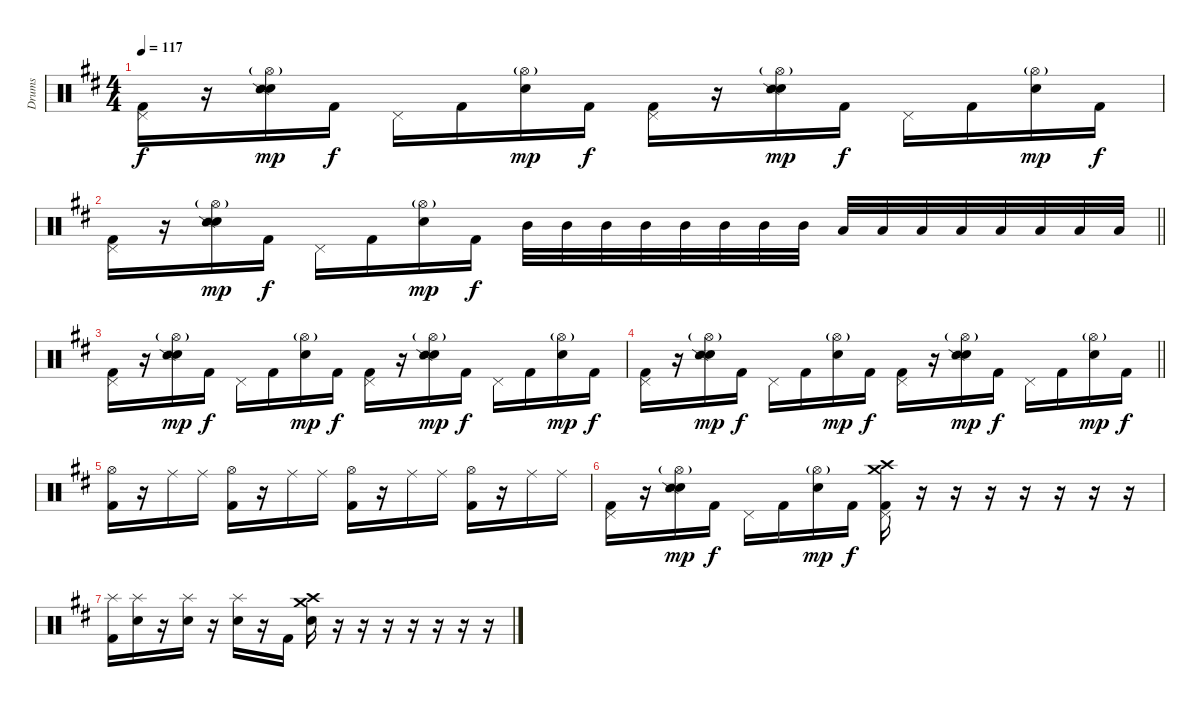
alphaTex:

\track ("Drums" "Drums") {instrument percussion}
\staff {score}
\articulation defaults
\ts (4 4)
\tempo 117
\clef neutral
\ks d
("Pedal Hi-Hat (hit)" "Kick (hit) 2").16{dy f} r.16 ("Hi-Hat (open)"{g} "Electric Snare (hit)" "Snare (side stick) 2").16{dy mp} "Kick (hit) 2".16{dy f} "Pedal Hi-Hat (hit)".16 "Kick (hit) 2".16 ("Hi-Hat (open)"{g} "Electric Snare (hit)").16{dy mp} "Kick (hit) 2".16{dy f} ("Pedal Hi-Hat (hit)" "Kick (hit) 2").16 r.16 ("Hi-Hat (open)"{g} "Electric Snare (hit)" "Snare (side stick) 2").16{dy mp} "Kick (hit) 2".16{dy f} "Pedal Hi-Hat (hit)".16 "Kick (hit) 2".16 ("Hi-Hat (open)"{g} "Electric Snare (hit)").16{dy mp} "Kick (hit) 2".16{dy f} |
\barLineRight lightlight
("Pedal Hi-Hat (hit)" "Kick (hit) 2").16 r.16 ("Hi-Hat (open)"{g} "Electric Snare (hit)" "Snare (side stick) 2").16{dy mp} "Kick (hit) 2".16{dy f} "Pedal Hi-Hat (hit)".16 "Kick (hit) 2".16 ("Hi-Hat (open)"{g} "Electric Snare (hit)").16{dy mp} "Kick (hit) 2".16{dy f} "Mid Tom (hit)".32 "Mid Tom (hit)".32 "Mid Tom (hit)".32 "Mid Tom (hit)".32 "Mid Tom (hit)".32 "Mid Tom (hit)".32 "Mid Tom (hit)".32 "Mid Tom (hit)".32 "Low Tom (hit)".32 "Low Tom (hit)".32 "Low Tom (hit)".32 "Low Tom (hit)".32 "Low Tom (hit)".32 "Low Tom (hit)".32 "Low Tom (hit)".32 "Low Tom (hit)".32 |
("Pedal Hi-Hat (hit)" "Kick (hit) 2").16 r.16 ("Hi-Hat (open)"{g} "Electric Snare (hit)" "Snare (side stick) 2").16{dy mp} "Kick (hit) 2".16{dy f} "Pedal Hi-Hat (hit)".16 "Kick (hit) 2".16 ("Hi-Hat (open)"{g} "Electric Snare (hit)").16{dy mp} "Kick (hit) 2".16{dy f} ("Pedal Hi-Hat (hit)" "Kick (hit) 2").16 r.16 ("Hi-Hat (open)"{g} "Electric Snare (hit)" "Snare (side stick) 2").16{dy mp} "Kick (hit) 2".16{dy f} "Pedal Hi-Hat (hit)".16 "Kick (hit) 2".16 ("Hi-Hat (open)"{g} "Electric Snare (hit)").16{dy mp} "Kick (hit) 2".16{dy f} |
\barLineRight lightlight
("Pedal Hi-Hat (hit)" "Kick (hit) 2").16 r.16 ("Hi-Hat (open)"{g} "Electric Snare (hit)" "Snare (side stick) 2").16{dy mp} "Kick (hit) 2".16{dy f} "Pedal Hi-Hat (hit)".16 "Kick (hit) 2".16 ("Hi-Hat (open)"{g} "Electric Snare (hit)").16{dy mp} "Kick (hit) 2".16{dy f} ("Pedal Hi-Hat (hit)" "Kick (hit) 2").16 r.16 ("Hi-Hat (open)"{g} "Electric Snare (hit)" "Snare (side stick) 2").16{dy mp} "Kick (hit) 2".16{dy f} "Pedal Hi-Hat (hit)".16 "Kick (hit) 2".16 ("Hi-Hat (open)"{g} "Electric Snare (hit)").16{dy mp} "Kick (hit) 2".16{dy f} |
("Hi-Hat (open)" "Kick (hit) 2").16 r.16 "Ride (middle)".16 "Ride (middle)".16{volume 10} ("Hi-Hat (open)" "Kick (hit) 2").16 r.16 "Ride (middle)".16{volume 12} "Ride (middle)".16{volume 10} ("Hi-Hat (open)" "Kick (hit) 2").16 r.16 "Ride (middle)".16{volume 12} "Ride (middle)".16{volume 10} ("Hi-Hat (open)" "Kick (hit) 2").16 r.16 "Ride (middle)".16{volume 12} "Ride (middle)".16{volume 10} |
("Pedal Hi-Hat (hit)" "Kick (hit) 2").16 r.16 ("Hi-Hat (open)"{g} "Electric Snare (hit)" "Snare (side stick) 2").16{dy mp} "Kick (hit) 2".16{dy f} "Pedal Hi-Hat (hit)".16 "Kick (hit) 2".16 ("Hi-Hat (open)"{g} "Electric Snare (hit)").16{dy mp} "Kick (hit) 2".16{dy f} ("Pedal Hi-Hat (hit)" "Crash high (hit)" "Crash medium (hit)" "Kick (hit) 2").16 r.16 r.16 r.16 r.16 r.16 r.16 r.16 |
("Splash (hit)" "Kick (hit) 2").16 ("Splash (hit)" "Electric Snare (hit)").16 r.16 ("Splash (hit)" "Electric Snare (hit)").16 r.16 ("Splash (hit)" "Electric Snare (hit)").16 r.16 "Kick (hit) 2".16 ("Crash medium (hit)" "Crash high (hit)" "Electric Snare (hit)").16 r.16 r.16 r.16 r.16 r.16 r.16 r.16
